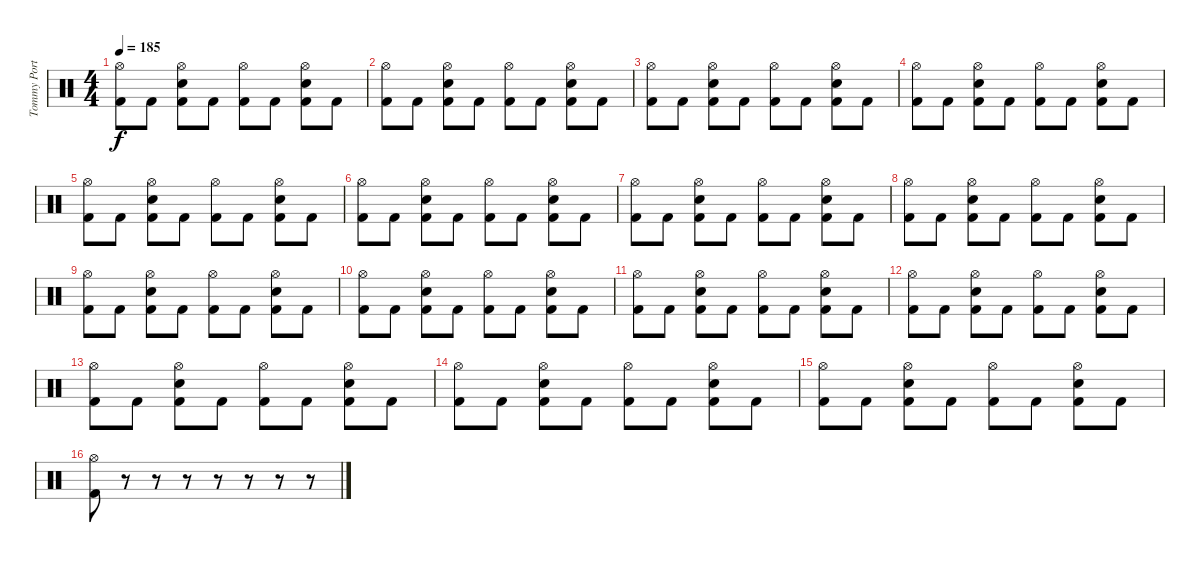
\track ("Tommy Portino" "Tommy Port") {instrument percussion}
\staff {score}
\articulation defaults
\ts (4 4)
\tempo 185
\clef neutral
\ks c
("Hi-Hat (open)" "Kick (hit) 2").8{dy f} "Kick (hit) 2".8 ("Hi-Hat (open)" "Snare (hit) 2" "Kick (hit) 2").8 "Kick (hit) 2".8 ("Hi-Hat (open)" "Kick (hit) 2").8 "Kick (hit) 2".8 ("Hi-Hat (open)" "Snare (hit) 2" "Kick (hit) 2").8 "Kick (hit) 2".8 |
("Hi-Hat (open)" "Kick (hit) 2").8 "Kick (hit) 2".8 ("Hi-Hat (open)" "Snare (hit) 2" "Kick (hit) 2").8 "Kick (hit) 2".8 ("Hi-Hat (open)" "Kick (hit) 2").8 "Kick (hit) 2".8 ("Hi-Hat (open)" "Snare (hit) 2" "Kick (hit) 2").8 "Kick (hit) 2".8 |
("Hi-Hat (open)" "Kick (hit) 2").8 "Kick (hit) 2".8 ("Hi-Hat (open)" "Snare (hit) 2" "Kick (hit) 2").8 "Kick (hit) 2".8 ("Hi-Hat (open)" "Kick (hit) 2").8 "Kick (hit) 2".8 ("Hi-Hat (open)" "Snare (hit) 2" "Kick (hit) 2").8 "Kick (hit) 2".8 |
("Hi-Hat (open)" "Kick (hit) 2").8 "Kick (hit) 2".8 ("Hi-Hat (open)" "Snare (hit) 2" "Kick (hit) 2").8 "Kick (hit) 2".8 ("Hi-Hat (open)" "Kick (hit) 2").8 "Kick (hit) 2".8 ("Hi-Hat (open)" "Snare (hit) 2" "Kick (hit) 2").8 "Kick (hit) 2".8 |
("Hi-Hat (open)" "Kick (hit) 2").8 "Kick (hit) 2".8 ("Hi-Hat (open)" "Snare (hit) 2" "Kick (hit) 2").8 "Kick (hit) 2".8 ("Hi-Hat (open)" "Kick (hit) 2").8 "Kick (hit) 2".8 ("Hi-Hat (open)" "Snare (hit) 2" "Kick (hit) 2").8 "Kick (hit) 2".8 |
("Hi-Hat (open)" "Kick (hit) 2").8 "Kick (hit) 2".8 ("Hi-Hat (open)" "Snare (hit) 2" "Kick (hit) 2").8 "Kick (hit) 2".8 ("Hi-Hat (open)" "Kick (hit) 2").8 "Kick (hit) 2".8 ("Hi-Hat (open)" "Snare (hit) 2" "Kick (hit) 2").8 "Kick (hit) 2".8 |
("Hi-Hat (open)" "Kick (hit) 2").8 "Kick (hit) 2".8 ("Hi-Hat (open)" "Snare (hit) 2" "Kick (hit) 2").8 "Kick (hit) 2".8 ("Hi-Hat (open)" "Kick (hit) 2").8 "Kick (hit) 2".8 ("Hi-Hat (open)" "Snare (hit) 2" "Kick (hit) 2").8 "Kick (hit) 2".8 |
("Hi-Hat (open)" "Kick (hit) 2").8 "Kick (hit) 2".8 ("Hi-Hat (open)" "Snare (hit) 2" "Kick (hit) 2").8 "Kick (hit) 2".8 ("Hi-Hat (open)" "Kick (hit) 2").8 "Kick (hit) 2".8 ("Hi-Hat (open)" "Snare (hit) 2" "Kick (hit) 2").8 "Kick (hit) 2".8 |
("Hi-Hat (open)" "Kick (hit) 2").8 "Kick (hit) 2".8 ("Hi-Hat (open)" "Snare (hit) 2" "Kick (hit) 2").8 "Kick (hit) 2".8 ("Hi-Hat (open)" "Kick (hit) 2").8 "Kick (hit) 2".8 ("Hi-Hat (open)" "Snare (hit) 2" "Kick (hit) 2").8 "Kick (hit) 2".8 |
("Hi-Hat (open)" "Kick (hit) 2").8 "Kick (hit) 2".8 ("Hi-Hat (open)" "Snare (hit) 2" "Kick (hit) 2").8 "Kick (hit) 2".8 ("Hi-Hat (open)" "Kick (hit) 2").8 "Kick (hit) 2".8 ("Hi-Hat (open)" "Snare (hit) 2" "Kick (hit) 2").8 "Kick (hit) 2".8 |
("Hi-Hat (open)" "Kick (hit) 2").8 "Kick (hit) 2".8 ("Hi-Hat (open)" "Snare (hit) 2" "Kick (hit) 2").8 "Kick (hit) 2".8 ("Hi-Hat (open)" "Kick (hit) 2").8 "Kick (hit) 2".8 ("Hi-Hat (open)" "Snare (hit) 2" "Kick (hit) 2").8 "Kick (hit) 2".8 |
("Hi-Hat (open)" "Kick (hit) 2").8 "Kick (hit) 2".8 ("Hi-Hat (open)" "Snare (hit) 2" "Kick (hit) 2").8 "Kick (hit) 2".8 ("Hi-Hat (open)" "Kick (hit) 2").8 "Kick (hit) 2".8 ("Hi-Hat (open)" "Snare (hit) 2" "Kick (hit) 2").8 "Kick (hit) 2".8 |
("Hi-Hat (open)" "Kick (hit) 2").8 "Kick (hit) 2".8 ("Hi-Hat (open)" "Snare (hit) 2" "Kick (hit) 2").8 "Kick (hit) 2".8 ("Hi-Hat (open)" "Kick (hit) 2").8 "Kick (hit) 2".8 ("Hi-Hat (open)" "Snare (hit) 2" "Kick (hit) 2").8 "Kick (hit) 2".8 |
("Hi-Hat (open)" "Kick (hit) 2").8 "Kick (hit) 2".8 ("Hi-Hat (open)" "Snare (hit) 2" "Kick (hit) 2").8 "Kick (hit) 2".8 ("Hi-Hat (open)" "Kick (hit) 2").8 "Kick (hit) 2".8 ("Hi-Hat (open)" "Snare (hit) 2" "Kick (hit) 2").8 "Kick (hit) 2".8 |
("Hi-Hat (open)" "Kick (hit) 2").8 "Kick (hit) 2".8 ("Hi-Hat (open)" "Snare (hit) 2" "Kick (hit) 2").8 "Kick (hit) 2".8 ("Hi-Hat (open)" "Kick (hit) 2").8 "Kick (hit) 2".8 ("Hi-Hat (open)" "Snare (hit) 2" "Kick (hit) 2").8 "Kick (hit) 2".8 |
("Hi-Hat (open)" "Kick (hit) 2").8 r.8 r.8 r.8 r.8 r.8 r.8 r.8
